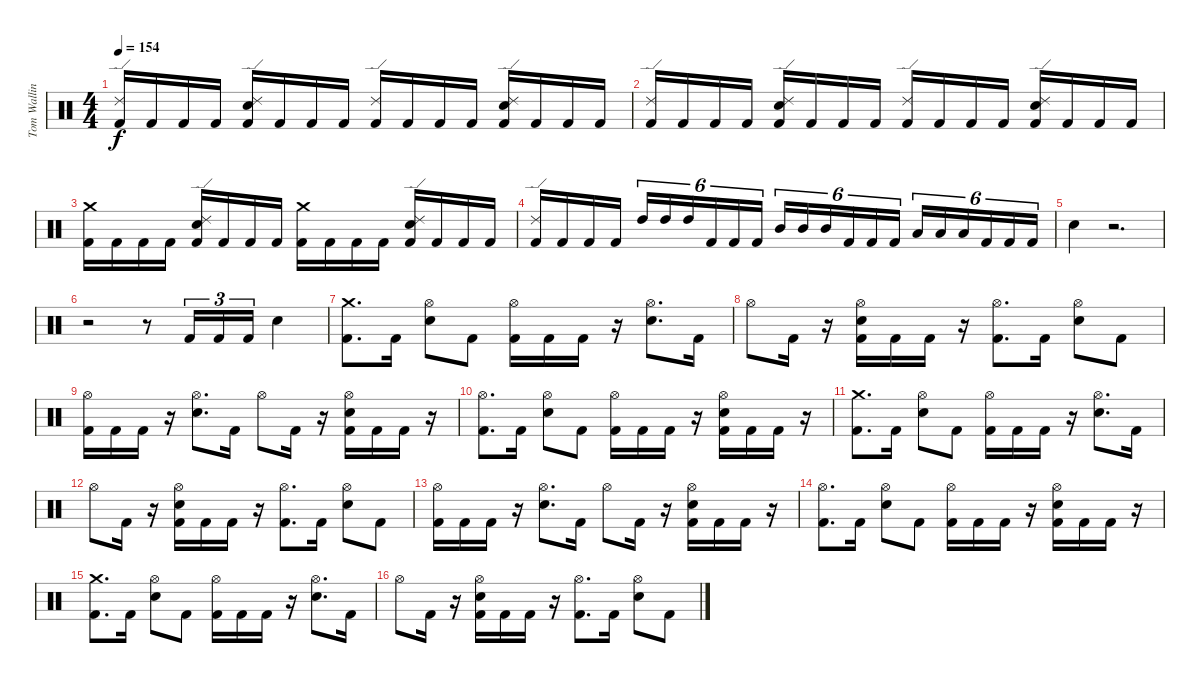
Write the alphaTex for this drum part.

\track ("Tom Walling" "Tom Wallin") {instrument percussion}
\staff {score}
\articulation defaults
\ts (4 4)
\tempo 154
\clef neutral
\ks c
("Ride (edge) 2" "Kick (hit) 2").16{dy f} "Kick (hit) 2".16 "Kick (hit) 2".16 "Kick (hit) 2".16 ("Ride (edge) 2" "Kick (hit) 2" "Electric Snare (hit)").16 "Kick (hit) 2".16 "Kick (hit) 2".16 "Kick (hit) 2".16 ("Ride (edge) 2" "Kick (hit) 2").16 "Kick (hit) 2".16 "Kick (hit) 2".16 "Kick (hit) 2".16 ("Ride (edge) 2" "Kick (hit) 2" "Electric Snare (hit)").16 "Kick (hit) 2".16 "Kick (hit) 2".16 "Kick (hit) 2".16 |
("Ride (edge) 2" "Kick (hit) 2").16 "Kick (hit) 2".16 "Kick (hit) 2".16 "Kick (hit) 2".16 ("Ride (edge) 2" "Kick (hit) 2" "Electric Snare (hit)").16 "Kick (hit) 2".16 "Kick (hit) 2".16 "Kick (hit) 2".16 ("Ride (edge) 2" "Kick (hit) 2").16 "Kick (hit) 2".16 "Kick (hit) 2".16 "Kick (hit) 2".16 ("Ride (edge) 2" "Kick (hit) 2" "Electric Snare (hit)").16 "Kick (hit) 2".16 "Kick (hit) 2".16 "Kick (hit) 2".16 |
("Crash medium (hit)" "Kick (hit) 2").16 "Kick (hit) 2".16 "Kick (hit) 2".16 "Kick (hit) 2".16 ("Ride (edge) 2" "Kick (hit) 2" "Electric Snare (hit)").16 "Kick (hit) 2".16 "Kick (hit) 2".16 "Kick (hit) 2".16 ("Crash medium (hit)" "Kick (hit) 2").16 "Kick (hit) 2".16 "Kick (hit) 2".16 "Kick (hit) 2".16 ("Ride (edge) 2" "Kick (hit) 2" "Electric Snare (hit)").16 "Kick (hit) 2".16 "Kick (hit) 2".16 "Kick (hit) 2".16 |
("Ride (edge) 2" "Kick (hit) 2").16 "Kick (hit) 2".16 "Kick (hit) 2".16 "Kick (hit) 2".16 "High Tom (hit)".16{tu (6 4)} "High Tom (hit)".16{tu (6 4)} "High Tom (hit)".16{tu (6 4)} "Kick (hit) 2".16{tu (6 4)} "Kick (hit) 2".16{tu (6 4)} "Kick (hit) 2".16{tu (6 4)} "Mid Tom (hit)".16{tu (6 4)} "Mid Tom (hit)".16{tu (6 4)} "Mid Tom (hit)".16{tu (6 4)} "Kick (hit) 2".16{tu (6 4)} "Kick (hit) 2".16{tu (6 4)} "Kick (hit) 2".16{tu (6 4)} "Low Tom (hit)".16{tu (6 4)} "Low Tom (hit)".16{tu (6 4)} "Low Tom (hit)".16{tu (6 4)} "Kick (hit) 2".16{tu (6 4)} "Kick (hit) 2".16{tu (6 4)} "Kick (hit) 2".16{tu (6 4)} |
"Electric Snare (hit)".4{volume 16 balance 8} r.2{d} |
r.2 r.8 "Kick (hit) 2".16{tu (3 2) volume 16 balance 8} "Kick (hit) 2".16{tu (3 2)} "Kick (hit) 2".16{tu (3 2)} "Electric Snare (hit)".4 |
("Crash medium (hit)" "Kick (hit) 2").8{d} "Kick (hit) 2".16 ("Hi-Hat (open)" "Electric Snare (hit)").8 "Kick (hit) 2".8 ("Hi-Hat (open)" "Kick (hit) 2").16 "Kick (hit) 2".16 "Kick (hit) 2".16 r.16 ("Hi-Hat (open)" "Electric Snare (hit)").8{d} "Kick (hit) 2".16 |
"Hi-Hat (open)".8 "Kick (hit) 2".16 r.16 ("Electric Snare (hit)" "Kick (hit) 2" "Hi-Hat (open)").16 "Kick (hit) 2".16 "Kick (hit) 2".16 r.16 ("Kick (hit) 2" "Hi-Hat (open)").8{d} "Kick (hit) 2".16 ("Electric Snare (hit)" "Hi-Hat (open)").8 "Kick (hit) 2".8 |
("Hi-Hat (open)" "Kick (hit) 2").16 "Kick (hit) 2".16 "Kick (hit) 2".16 r.16 ("Hi-Hat (open)" "Electric Snare (hit)").8{d} "Kick (hit) 2".16 "Hi-Hat (open)".8 "Kick (hit) 2".16 r.16 ("Hi-Hat (open)" "Kick (hit) 2" "Electric Snare (hit)").16 "Kick (hit) 2".16 "Kick (hit) 2".16 r.16 |
("Hi-Hat (open)" "Kick (hit) 2").8{d} "Kick (hit) 2".16 ("Hi-Hat (open)" "Electric Snare (hit)").8 "Kick (hit) 2".8 ("Kick (hit) 2" "Hi-Hat (open)").16 "Kick (hit) 2".16 "Kick (hit) 2".16 r.16 ("Kick (hit) 2" "Electric Snare (hit)" "Hi-Hat (open)").16 "Kick (hit) 2".16 "Kick (hit) 2".16 r.16 |
("Crash medium (hit)" "Kick (hit) 2").8{d} "Kick (hit) 2".16 ("Hi-Hat (open)" "Electric Snare (hit)").8 "Kick (hit) 2".8 ("Hi-Hat (open)" "Kick (hit) 2").16 "Kick (hit) 2".16 "Kick (hit) 2".16 r.16 ("Hi-Hat (open)" "Electric Snare (hit)").8{d} "Kick (hit) 2".16 |
"Hi-Hat (open)".8 "Kick (hit) 2".16 r.16 ("Electric Snare (hit)" "Kick (hit) 2" "Hi-Hat (open)").16 "Kick (hit) 2".16 "Kick (hit) 2".16 r.16 ("Kick (hit) 2" "Hi-Hat (open)").8{d} "Kick (hit) 2".16 ("Electric Snare (hit)" "Hi-Hat (open)").8 "Kick (hit) 2".8 |
("Hi-Hat (open)" "Kick (hit) 2").16 "Kick (hit) 2".16 "Kick (hit) 2".16 r.16 ("Hi-Hat (open)" "Electric Snare (hit)").8{d} "Kick (hit) 2".16 "Hi-Hat (open)".8 "Kick (hit) 2".16 r.16 ("Hi-Hat (open)" "Kick (hit) 2" "Electric Snare (hit)").16 "Kick (hit) 2".16 "Kick (hit) 2".16 r.16 |
("Hi-Hat (open)" "Kick (hit) 2").8{d} "Kick (hit) 2".16 ("Hi-Hat (open)" "Electric Snare (hit)").8 "Kick (hit) 2".8 ("Kick (hit) 2" "Hi-Hat (open)").16 "Kick (hit) 2".16 "Kick (hit) 2".16 r.16 ("Kick (hit) 2" "Electric Snare (hit)" "Hi-Hat (open)").16 "Kick (hit) 2".16 "Kick (hit) 2".16 r.16 |
("Crash medium (hit)" "Kick (hit) 2").8{d} "Kick (hit) 2".16 ("Hi-Hat (open)" "Electric Snare (hit)").8 "Kick (hit) 2".8 ("Hi-Hat (open)" "Kick (hit) 2").16 "Kick (hit) 2".16 "Kick (hit) 2".16 r.16 ("Hi-Hat (open)" "Electric Snare (hit)").8{d} "Kick (hit) 2".16 |
"Hi-Hat (open)".8 "Kick (hit) 2".16 r.16 ("Electric Snare (hit)" "Kick (hit) 2" "Hi-Hat (open)").16 "Kick (hit) 2".16 "Kick (hit) 2".16 r.16 ("Kick (hit) 2" "Hi-Hat (open)").8{d} "Kick (hit) 2".16 ("Electric Snare (hit)" "Hi-Hat (open)").8 "Kick (hit) 2".8
